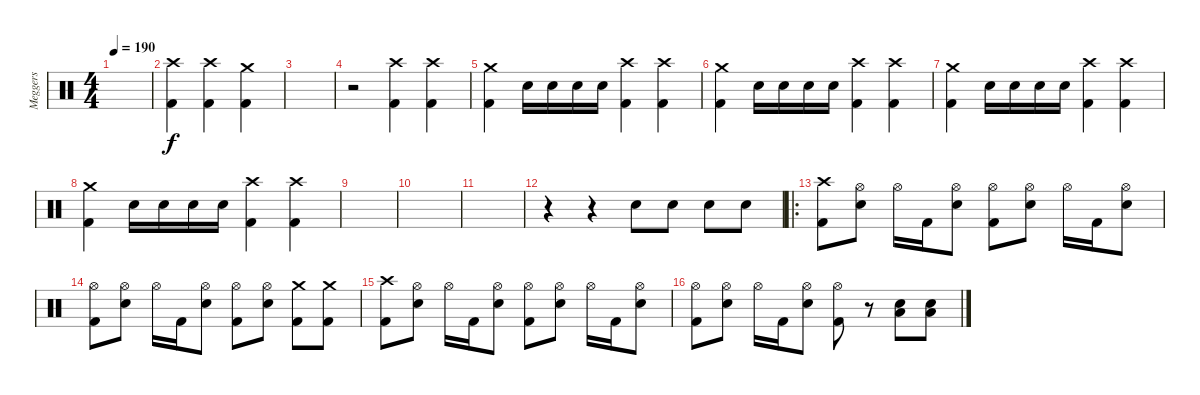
\track ("Meggers" "Meggers") {instrument percussion}
\staff {score}
\articulation defaults
\ts (4 4)
\tempo 190
\clef neutral
\ks c
|
("Crash high (hit)" "Kick (hit) 2").4 ("Crash high (hit)" "Kick (hit) 2").4 ("Crash medium (hit)" "Kick (hit) 2").4 |
|
r.2 ("Crash high (hit)" "Kick (hit) 2").4 ("Crash high (hit)" "Kick (hit) 2").4 |
("Crash medium (hit)" "Kick (hit) 2").4 "Electric Snare (hit)".16 "Electric Snare (hit)".16 "Electric Snare (hit)".16 "Electric Snare (hit)".16 ("Crash high (hit)" "Kick (hit) 2").4 ("Crash high (hit)" "Kick (hit) 2").4 |
("Crash medium (hit)" "Kick (hit) 2").4 "Electric Snare (hit)".16 "Electric Snare (hit)".16 "Electric Snare (hit)".16 "Electric Snare (hit)".16 ("Crash high (hit)" "Kick (hit) 2").4 ("Crash high (hit)" "Kick (hit) 2").4 |
("Crash medium (hit)" "Kick (hit) 2").4 "Electric Snare (hit)".16 "Electric Snare (hit)".16 "Electric Snare (hit)".16 "Electric Snare (hit)".16 ("Crash high (hit)" "Kick (hit) 2").4 ("Crash high (hit)" "Kick (hit) 2").4 |
("Crash medium (hit)" "Kick (hit) 2").4 "Electric Snare (hit)".16 "Electric Snare (hit)".16 "Electric Snare (hit)".16 "Electric Snare (hit)".16 ("Crash high (hit)" "Kick (hit) 2").4 ("Crash high (hit)" "Kick (hit) 2").4 |
|
|
|
r.4 r.4 "Electric Snare (hit)".8 "Electric Snare (hit)".8 "Electric Snare (hit)".8 "Electric Snare (hit)".8 |
\ro
("Crash high (hit)" "Kick (hit) 2").8 ("Hi-Hat (open)" "Electric Snare (hit)").8 "Hi-Hat (open)".16 "Kick (hit) 2".16 ("Hi-Hat (open)" "Electric Snare (hit)").8 ("Hi-Hat (open)" "Kick (hit) 2").8 ("Hi-Hat (open)" "Electric Snare (hit)").8 "Hi-Hat (open)".16 "Kick (hit) 2".16 ("Hi-Hat (open)" "Electric Snare (hit)").8 |
("Hi-Hat (open)" "Kick (hit) 2").8 ("Hi-Hat (open)" "Electric Snare (hit)").8 "Hi-Hat (open)".16 "Kick (hit) 2".16 ("Hi-Hat (open)" "Electric Snare (hit)").8 ("Hi-Hat (open)" "Kick (hit) 2").8 ("Hi-Hat (open)" "Electric Snare (hit)").8 ("Crash medium (hit)" "Kick (hit) 2").8 ("Crash medium (hit)" "Kick (hit) 2").8 |
("Crash high (hit)" "Kick (hit) 2").8 ("Hi-Hat (open)" "Electric Snare (hit)").8 "Hi-Hat (open)".16 "Kick (hit) 2".16 ("Hi-Hat (open)" "Electric Snare (hit)").8 ("Hi-Hat (open)" "Kick (hit) 2").8 ("Hi-Hat (open)" "Electric Snare (hit)").8 "Hi-Hat (open)".16 "Kick (hit) 2".16 ("Hi-Hat (open)" "Electric Snare (hit)").8 |
("Hi-Hat (open)" "Kick (hit) 2").8 ("Hi-Hat (open)" "Electric Snare (hit)").8 "Hi-Hat (open)".16 "Kick (hit) 2".16 ("Hi-Hat (open)" "Electric Snare (hit)").8 ("Hi-Hat (open)" "Kick (hit) 2").8 r.8 ("Low Floor Tom (hit)" "Electric Snare (hit)").8 ("Low Floor Tom (hit)" "Electric Snare (hit)").8
